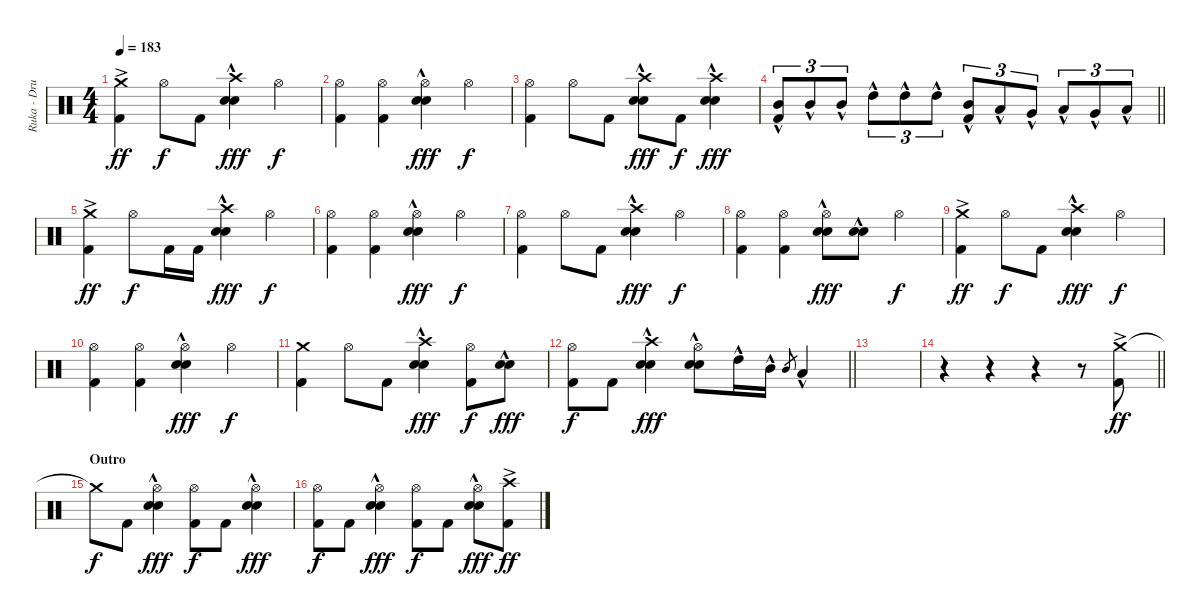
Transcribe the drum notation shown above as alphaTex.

\track ("Ruka - Drums" "Ruka - Dru") {instrument percussion}
\staff {score}
\articulation defaults
\ts (4 4)
\tempo 183
\clef neutral
\ks c
("Crash medium (hit)"{ac} "Kick (hit) 2").4{dy ff} "Hi-Hat (open)".8{dy f} "Kick (hit) 2".8 ("Crash high (hit)" "Electric Snare (hit)"{hac} "Snare (hit) 2"{hac}).4{dy fff} "Hi-Hat (open)".4{dy f} |
("Hi-Hat (open)" "Kick (hit) 2").4 ("Hi-Hat (open)" "Kick (hit) 2").4 ("Hi-Hat (open)" "Electric Snare (hit)"{hac} "Snare (hit) 2"{hac}).4{dy fff} "Hi-Hat (open)".4{dy f} |
("Hi-Hat (open)" "Kick (hit) 2").4 "Hi-Hat (open)".8 "Kick (hit) 2".8 ("Crash high (hit)" "Electric Snare (hit)"{hac} "Snare (hit) 2"{hac}).8{dy fff} "Kick (hit) 2".8{dy f} ("Crash high (hit)" "Electric Snare (hit)"{hac} "Snare (hit) 2"{hac}).4{dy fff} |
\barLineRight lightlight
("Mid Tom (hit)"{hac} "Kick (hit) 2").8{tu (3 2)} "Mid Tom (hit)"{hac}.8{tu (3 2)} "Mid Tom (hit)"{hac}.8{tu (3 2)} "High Tom (hit)"{hac}.8{tu (3 2)} "High Tom (hit)"{hac}.8{tu (3 2)} "High Tom (hit)"{hac}.8{tu (3 2)} ("Mid Tom (hit)"{hac} "Kick (hit) 2").8{tu (3 2)} "Low Tom (hit)"{hac}.8{tu (3 2)} "Very Low Tom (hit)"{hac}.8{tu (3 2)} "Low Tom (hit)"{hac}.8{tu (3 2)} "Very Low Tom (hit)"{hac}.8{tu (3 2)} "Low Floor Tom (hit)"{hac}.8{tu (3 2)} |
\section ("" "")
("Crash medium (hit)"{ac} "Kick (hit) 2").4{dy ff} "Hi-Hat (open)".8{dy f} "Kick (hit) 2".16 "Kick (hit) 2".16 ("Crash high (hit)" "Electric Snare (hit)"{hac} "Snare (hit) 2"{hac}).4{dy fff} "Hi-Hat (open)".4{dy f} |
("Hi-Hat (open)" "Kick (hit) 2").4 ("Hi-Hat (open)" "Kick (hit) 2").4 ("Hi-Hat (open)" "Electric Snare (hit)"{hac} "Snare (hit) 2"{hac}).4{dy fff} "Hi-Hat (open)".4{dy f} |
("Hi-Hat (open)" "Kick (hit) 2").4 "Hi-Hat (open)".8 "Kick (hit) 2".8 ("Crash high (hit)" "Electric Snare (hit)"{hac} "Snare (hit) 2"{hac}).4{dy fff} "Hi-Hat (open)".4{dy f} |
("Hi-Hat (open)" "Kick (hit) 2").4 ("Hi-Hat (open)" "Kick (hit) 2").4 ("Hi-Hat (open)" "Electric Snare (hit)"{hac} "Snare (hit) 2"{hac}).8{dy fff} ("Electric Snare (hit)"{hac} "Snare (hit) 2"{hac}).8 "Hi-Hat (open)".4{dy f} |
("Crash medium (hit)"{ac} "Kick (hit) 2").4{dy ff} "Hi-Hat (open)".8{dy f} "Kick (hit) 2".8 ("Crash high (hit)" "Electric Snare (hit)"{hac} "Snare (hit) 2"{hac}).4{dy fff} "Hi-Hat (open)".4{dy f} |
("Hi-Hat (open)" "Kick (hit) 2").4 ("Hi-Hat (open)" "Kick (hit) 2").4 ("Hi-Hat (open)" "Electric Snare (hit)"{hac} "Snare (hit) 2"{hac}).4{dy fff} "Hi-Hat (open)".4{dy f} |
("Crash medium (hit)" "Kick (hit) 2").4 "Hi-Hat (open)".8 "Kick (hit) 2".8 ("Crash high (hit)" "Electric Snare (hit)"{hac} "Snare (hit) 2"{hac}).4{dy fff} ("Hi-Hat (open)" "Kick (hit) 2").8{dy f} ("Electric Snare (hit)"{hac} "Snare (hit) 2"{hac}).8{dy fff} |
\barLineRight lightlight
("Hi-Hat (open)" "Kick (hit) 2").8{dy f} "Kick (hit) 2".8 ("Crash high (hit)" "Electric Snare (hit)"{hac} "Snare (hit) 2"{hac}).4{dy fff} ("Hi-Hat (open)" "Electric Snare (hit)"{hac} "Snare (hit) 2"{hac}).8 "High Tom (hit)"{hac}.16 "Mid Tom (hit)"{hac}.16 "Mid Tom (hit)".8{gr} "Low Tom (hit)"{hac}.4 |
|
\barLineRight lightlight
r.4 r.4 r.4 r.8 ("Crash medium (hit)"{ac} "Kick (hit) 2").8{dy ff} |
\section ("" "Outro")
"Crash medium (hit)"{t}.8{dy f} "Kick (hit) 2".8 ("Hi-Hat (open)" "Electric Snare (hit)"{hac} "Snare (hit) 2"{hac}).4{dy fff} ("Hi-Hat (open)" "Kick (hit) 2").8{dy f} "Kick (hit) 2".8 ("Hi-Hat (open)" "Electric Snare (hit)"{hac} "Snare (hit) 2"{hac}).4{dy fff} |
("Hi-Hat (open)" "Kick (hit) 2").8{dy f} "Kick (hit) 2".8 ("Hi-Hat (open)" "Electric Snare (hit)"{hac} "Snare (hit) 2"{hac}).4{dy fff} ("Hi-Hat (open)" "Kick (hit) 2").8{dy f} "Kick (hit) 2".8 ("Hi-Hat (open)" "Electric Snare (hit)"{hac} "Snare (hit) 2"{hac}).8{dy fff} ("Crash high (hit)"{ac} "Kick (hit) 2").8{dy ff}
